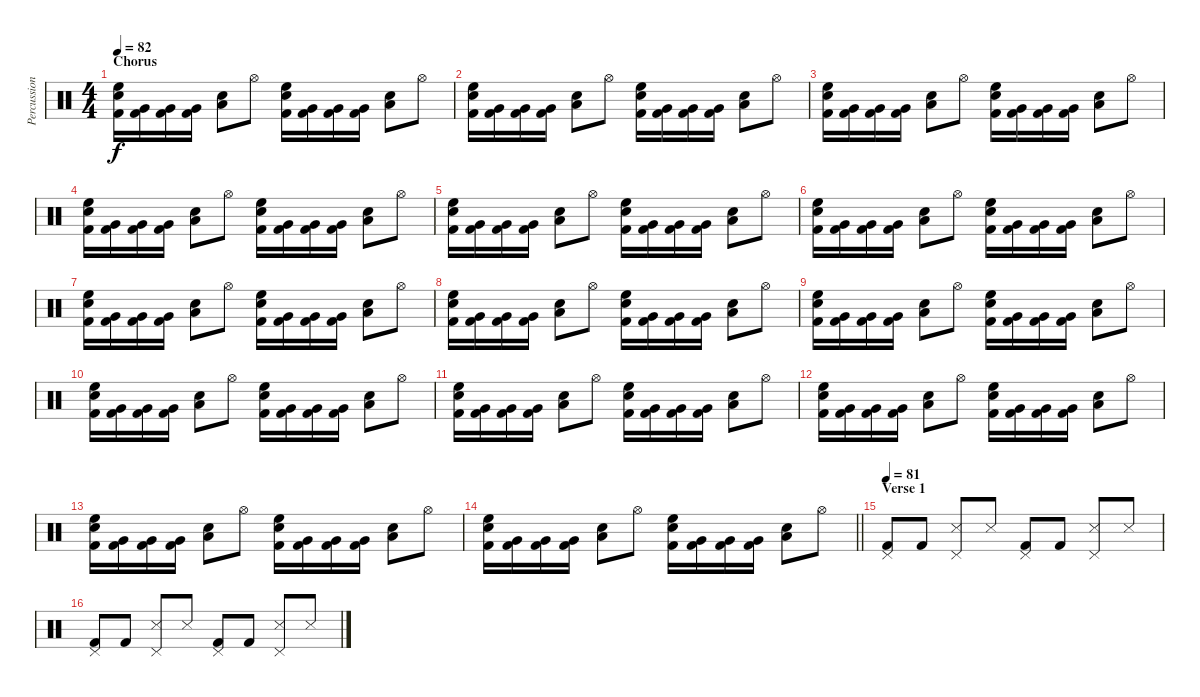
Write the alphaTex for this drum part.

\track ("Percussion" "Percussion") {instrument percussion}
\staff {score}
\articulation defaults
\ts (4 4)
\section ("" "Chorus")
\tempo 82
\clef neutral
\ks c
("High Floor Tom (hit)" "Snare (hit) 2" "Kick (hit) 2").16{dy f} ("Very Low Tom (hit)" "Kick (hit) 2").16 ("Very Low Tom (hit)" "Kick (hit) 2").16 ("Very Low Tom (hit)" "Kick (hit) 2").16 ("Low Tom (hit)" "Electric Snare (hit)").8 "Hi-Hat (open)".8 ("High Floor Tom (hit)" "Snare (hit) 2" "Kick (hit) 2").16 ("Very Low Tom (hit)" "Kick (hit) 2").16 ("Very Low Tom (hit)" "Kick (hit) 2").16 ("Very Low Tom (hit)" "Kick (hit) 2").16 ("Low Tom (hit)" "Electric Snare (hit)").8 "Hi-Hat (open)".8 |
("High Floor Tom (hit)" "Snare (hit) 2" "Kick (hit) 2").16 ("Very Low Tom (hit)" "Kick (hit) 2").16 ("Very Low Tom (hit)" "Kick (hit) 2").16 ("Very Low Tom (hit)" "Kick (hit) 2").16 ("Low Tom (hit)" "Electric Snare (hit)").8 "Hi-Hat (open)".8 ("High Floor Tom (hit)" "Snare (hit) 2" "Kick (hit) 2").16 ("Very Low Tom (hit)" "Kick (hit) 2").16 ("Very Low Tom (hit)" "Kick (hit) 2").16 ("Very Low Tom (hit)" "Kick (hit) 2").16 ("Low Tom (hit)" "Electric Snare (hit)").8 "Hi-Hat (open)".8 |
("High Floor Tom (hit)" "Snare (hit) 2" "Kick (hit) 2").16 ("Very Low Tom (hit)" "Kick (hit) 2").16 ("Very Low Tom (hit)" "Kick (hit) 2").16 ("Very Low Tom (hit)" "Kick (hit) 2").16 ("Low Tom (hit)" "Electric Snare (hit)").8 "Hi-Hat (open)".8 ("High Floor Tom (hit)" "Snare (hit) 2" "Kick (hit) 2").16 ("Very Low Tom (hit)" "Kick (hit) 2").16 ("Very Low Tom (hit)" "Kick (hit) 2").16 ("Very Low Tom (hit)" "Kick (hit) 2").16 ("Low Tom (hit)" "Electric Snare (hit)").8 "Hi-Hat (open)".8 |
("High Floor Tom (hit)" "Snare (hit) 2" "Kick (hit) 2").16 ("Very Low Tom (hit)" "Kick (hit) 2").16 ("Very Low Tom (hit)" "Kick (hit) 2").16 ("Very Low Tom (hit)" "Kick (hit) 2").16 ("Low Tom (hit)" "Electric Snare (hit)").8 "Hi-Hat (open)".8 ("High Floor Tom (hit)" "Snare (hit) 2" "Kick (hit) 2").16 ("Very Low Tom (hit)" "Kick (hit) 2").16 ("Very Low Tom (hit)" "Kick (hit) 2").16 ("Very Low Tom (hit)" "Kick (hit) 2").16 ("Low Tom (hit)" "Electric Snare (hit)").8 "Hi-Hat (open)".8 |
("High Floor Tom (hit)" "Snare (hit) 2" "Kick (hit) 2").16 ("Very Low Tom (hit)" "Kick (hit) 2").16 ("Very Low Tom (hit)" "Kick (hit) 2").16 ("Very Low Tom (hit)" "Kick (hit) 2").16 ("Low Tom (hit)" "Electric Snare (hit)").8 "Hi-Hat (open)".8 ("High Floor Tom (hit)" "Snare (hit) 2" "Kick (hit) 2").16 ("Very Low Tom (hit)" "Kick (hit) 2").16 ("Very Low Tom (hit)" "Kick (hit) 2").16 ("Very Low Tom (hit)" "Kick (hit) 2").16 ("Low Tom (hit)" "Electric Snare (hit)").8 "Hi-Hat (open)".8 |
("High Floor Tom (hit)" "Snare (hit) 2" "Kick (hit) 2").16 ("Very Low Tom (hit)" "Kick (hit) 2").16 ("Very Low Tom (hit)" "Kick (hit) 2").16 ("Very Low Tom (hit)" "Kick (hit) 2").16 ("Low Tom (hit)" "Electric Snare (hit)").8 "Hi-Hat (open)".8 ("High Floor Tom (hit)" "Snare (hit) 2" "Kick (hit) 2").16 ("Very Low Tom (hit)" "Kick (hit) 2").16 ("Very Low Tom (hit)" "Kick (hit) 2").16 ("Very Low Tom (hit)" "Kick (hit) 2").16 ("Low Tom (hit)" "Electric Snare (hit)").8 "Hi-Hat (open)".8 |
("High Floor Tom (hit)" "Snare (hit) 2" "Kick (hit) 2").16 ("Very Low Tom (hit)" "Kick (hit) 2").16 ("Very Low Tom (hit)" "Kick (hit) 2").16 ("Very Low Tom (hit)" "Kick (hit) 2").16 ("Low Tom (hit)" "Electric Snare (hit)").8 "Hi-Hat (open)".8 ("High Floor Tom (hit)" "Snare (hit) 2" "Kick (hit) 2").16 ("Very Low Tom (hit)" "Kick (hit) 2").16 ("Very Low Tom (hit)" "Kick (hit) 2").16 ("Very Low Tom (hit)" "Kick (hit) 2").16 ("Low Tom (hit)" "Electric Snare (hit)").8 "Hi-Hat (open)".8 |
("High Floor Tom (hit)" "Snare (hit) 2" "Kick (hit) 2").16 ("Very Low Tom (hit)" "Kick (hit) 2").16 ("Very Low Tom (hit)" "Kick (hit) 2").16 ("Very Low Tom (hit)" "Kick (hit) 2").16 ("Low Tom (hit)" "Electric Snare (hit)").8 "Hi-Hat (open)".8 ("High Floor Tom (hit)" "Snare (hit) 2" "Kick (hit) 2").16 ("Very Low Tom (hit)" "Kick (hit) 2").16 ("Very Low Tom (hit)" "Kick (hit) 2").16 ("Very Low Tom (hit)" "Kick (hit) 2").16 ("Low Tom (hit)" "Electric Snare (hit)").8 "Hi-Hat (open)".8 |
("High Floor Tom (hit)" "Snare (hit) 2" "Kick (hit) 2").16 ("Very Low Tom (hit)" "Kick (hit) 2").16 ("Very Low Tom (hit)" "Kick (hit) 2").16 ("Very Low Tom (hit)" "Kick (hit) 2").16 ("Low Tom (hit)" "Electric Snare (hit)").8 "Hi-Hat (open)".8 ("High Floor Tom (hit)" "Snare (hit) 2" "Kick (hit) 2").16 ("Very Low Tom (hit)" "Kick (hit) 2").16 ("Very Low Tom (hit)" "Kick (hit) 2").16 ("Very Low Tom (hit)" "Kick (hit) 2").16 ("Low Tom (hit)" "Electric Snare (hit)").8 "Hi-Hat (open)".8 |
("High Floor Tom (hit)" "Snare (hit) 2" "Kick (hit) 2").16 ("Very Low Tom (hit)" "Kick (hit) 2").16 ("Very Low Tom (hit)" "Kick (hit) 2").16 ("Very Low Tom (hit)" "Kick (hit) 2").16 ("Low Tom (hit)" "Electric Snare (hit)").8 "Hi-Hat (open)".8 ("High Floor Tom (hit)" "Snare (hit) 2" "Kick (hit) 2").16 ("Very Low Tom (hit)" "Kick (hit) 2").16 ("Very Low Tom (hit)" "Kick (hit) 2").16 ("Very Low Tom (hit)" "Kick (hit) 2").16 ("Low Tom (hit)" "Electric Snare (hit)").8 "Hi-Hat (open)".8 |
("High Floor Tom (hit)" "Snare (hit) 2" "Kick (hit) 2").16 ("Very Low Tom (hit)" "Kick (hit) 2").16 ("Very Low Tom (hit)" "Kick (hit) 2").16 ("Very Low Tom (hit)" "Kick (hit) 2").16 ("Low Tom (hit)" "Electric Snare (hit)").8 "Hi-Hat (open)".8 ("High Floor Tom (hit)" "Snare (hit) 2" "Kick (hit) 2").16 ("Very Low Tom (hit)" "Kick (hit) 2").16 ("Very Low Tom (hit)" "Kick (hit) 2").16 ("Very Low Tom (hit)" "Kick (hit) 2").16 ("Low Tom (hit)" "Electric Snare (hit)").8 "Hi-Hat (open)".8 |
("High Floor Tom (hit)" "Snare (hit) 2" "Kick (hit) 2").16 ("Very Low Tom (hit)" "Kick (hit) 2").16 ("Very Low Tom (hit)" "Kick (hit) 2").16 ("Very Low Tom (hit)" "Kick (hit) 2").16 ("Low Tom (hit)" "Electric Snare (hit)").8 "Hi-Hat (open)".8 ("High Floor Tom (hit)" "Snare (hit) 2" "Kick (hit) 2").16 ("Very Low Tom (hit)" "Kick (hit) 2").16 ("Very Low Tom (hit)" "Kick (hit) 2").16 ("Very Low Tom (hit)" "Kick (hit) 2").16 ("Low Tom (hit)" "Electric Snare (hit)").8 "Hi-Hat (open)".8 |
("High Floor Tom (hit)" "Snare (hit) 2" "Kick (hit) 2").16 ("Very Low Tom (hit)" "Kick (hit) 2").16 ("Very Low Tom (hit)" "Kick (hit) 2").16 ("Very Low Tom (hit)" "Kick (hit) 2").16 ("Low Tom (hit)" "Electric Snare (hit)").8 "Hi-Hat (open)".8 ("High Floor Tom (hit)" "Snare (hit) 2" "Kick (hit) 2").16 ("Very Low Tom (hit)" "Kick (hit) 2").16 ("Very Low Tom (hit)" "Kick (hit) 2").16 ("Very Low Tom (hit)" "Kick (hit) 2").16 ("Low Tom (hit)" "Electric Snare (hit)").8 "Hi-Hat (open)".8 |
\barLineRight lightlight
("High Floor Tom (hit)" "Snare (hit) 2" "Kick (hit) 2").16 ("Very Low Tom (hit)" "Kick (hit) 2").16 ("Very Low Tom (hit)" "Kick (hit) 2").16 ("Very Low Tom (hit)" "Kick (hit) 2").16 ("Low Tom (hit)" "Electric Snare (hit)").8 "Hi-Hat (open)".8 ("High Floor Tom (hit)" "Snare (hit) 2" "Kick (hit) 2").16 ("Very Low Tom (hit)" "Kick (hit) 2").16 ("Very Low Tom (hit)" "Kick (hit) 2").16 ("Very Low Tom (hit)" "Kick (hit) 2").16 ("Low Tom (hit)" "Electric Snare (hit)").8 "Hi-Hat (open)".8 |
\section ("" "Verse 1 ")
\tempo 81
("Pedal Hi-Hat (hit)" "Kick (hit) 2").8 "Kick (hit) 2".8 ("Pedal Hi-Hat (hit)" "Snare (side stick) 3").8 "Snare (side stick) 3".8 ("Pedal Hi-Hat (hit)" "Kick (hit) 2").8 "Kick (hit) 2".8 ("Pedal Hi-Hat (hit)" "Snare (side stick) 3").8 "Snare (side stick) 3".8 |
("Pedal Hi-Hat (hit)" "Kick (hit) 2").8 "Kick (hit) 2".8 ("Pedal Hi-Hat (hit)" "Snare (side stick) 3").8 "Snare (side stick) 3".8 ("Pedal Hi-Hat (hit)" "Kick (hit) 2").8 "Kick (hit) 2".8 ("Pedal Hi-Hat (hit)" "Snare (side stick) 3").8 "Snare (side stick) 3".8
